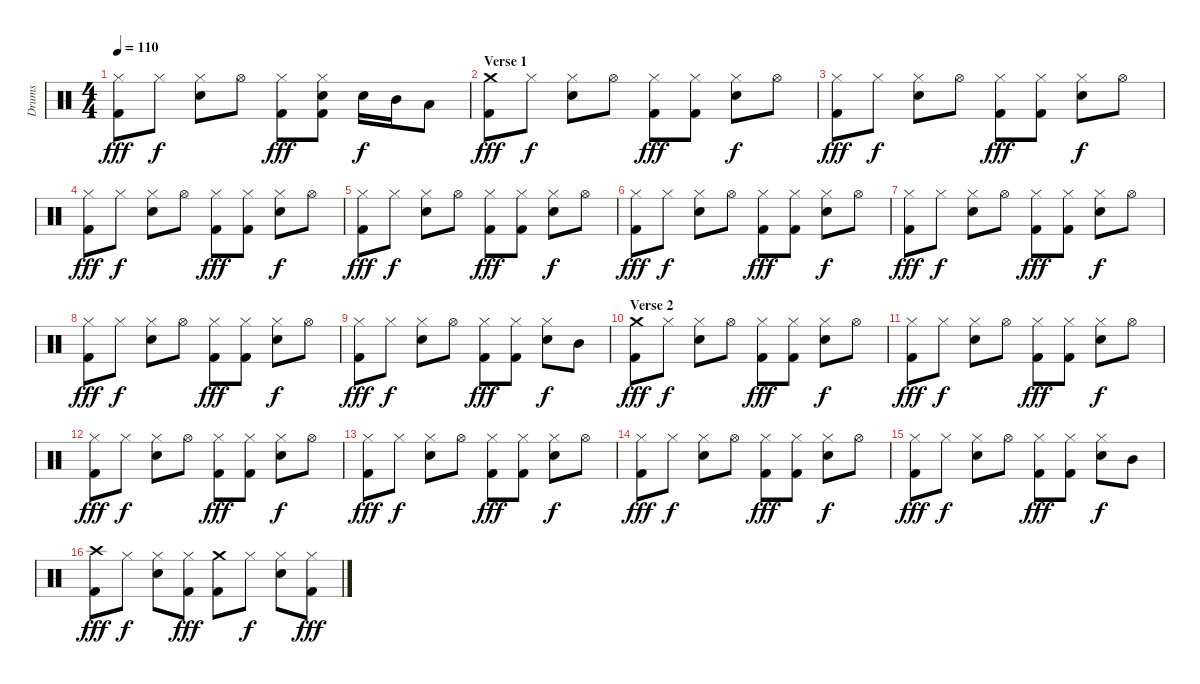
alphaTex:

\track ("Drums" "Drums") {instrument percussion}
\staff {score}
\articulation defaults
\ts (4 4)
\tempo 110
\clef neutral
\ks c
("Hi-Hat (closed)" "Kick (hit) 2").8{dy fff} "Hi-Hat (closed)".8{dy f} ("Hi-Hat (closed)" "Snare (hit) 2").8 "Hi-Hat (open)".8 ("Hi-Hat (closed)" "Kick (hit) 2").8{dy fff} ("Hi-Hat (closed)" "Snare (hit) 2" "Kick (hit) 2").8 "Snare (hit) 2".16{dy f} "Mid Tom (hit)".16 "Low Tom (hit)".8 |
\section ("" "Verse 1")
("Crash medium (hit)" "Kick (hit) 2").8{dy fff} "Hi-Hat (closed)".8{dy f} ("Hi-Hat (closed)" "Snare (hit) 2").8 "Hi-Hat (open)".8 ("Hi-Hat (closed)" "Kick (hit) 2").8{dy fff} ("Hi-Hat (closed)" "Kick (hit) 2").8 ("Hi-Hat (closed)" "Snare (hit) 2").8{dy f} "Hi-Hat (open)".8 |
("Hi-Hat (closed)" "Kick (hit) 2").8{dy fff} "Hi-Hat (closed)".8{dy f} ("Hi-Hat (closed)" "Snare (hit) 2").8 "Hi-Hat (open)".8 ("Hi-Hat (closed)" "Kick (hit) 2").8{dy fff} ("Hi-Hat (closed)" "Kick (hit) 2").8 ("Hi-Hat (closed)" "Snare (hit) 2").8{dy f} "Hi-Hat (open)".8 |
("Hi-Hat (closed)" "Kick (hit) 2").8{dy fff} "Hi-Hat (closed)".8{dy f} ("Hi-Hat (closed)" "Snare (hit) 2").8 "Hi-Hat (open)".8 ("Hi-Hat (closed)" "Kick (hit) 2").8{dy fff} ("Hi-Hat (closed)" "Kick (hit) 2").8 ("Hi-Hat (closed)" "Snare (hit) 2").8{dy f} "Hi-Hat (open)".8 |
("Hi-Hat (closed)" "Kick (hit) 2").8{dy fff} "Hi-Hat (closed)".8{dy f} ("Hi-Hat (closed)" "Snare (hit) 2").8 "Hi-Hat (open)".8 ("Hi-Hat (closed)" "Kick (hit) 2").8{dy fff} ("Hi-Hat (closed)" "Kick (hit) 2").8 ("Hi-Hat (closed)" "Snare (hit) 2").8{dy f} "Hi-Hat (open)".8 |
("Hi-Hat (closed)" "Kick (hit) 2").8{dy fff} "Hi-Hat (closed)".8{dy f} ("Hi-Hat (closed)" "Snare (hit) 2").8 "Hi-Hat (open)".8 ("Hi-Hat (closed)" "Kick (hit) 2").8{dy fff} ("Hi-Hat (closed)" "Kick (hit) 2").8 ("Hi-Hat (closed)" "Snare (hit) 2").8{dy f} "Hi-Hat (open)".8 |
("Hi-Hat (closed)" "Kick (hit) 2").8{dy fff} "Hi-Hat (closed)".8{dy f} ("Hi-Hat (closed)" "Snare (hit) 2").8 "Hi-Hat (open)".8 ("Hi-Hat (closed)" "Kick (hit) 2").8{dy fff} ("Hi-Hat (closed)" "Kick (hit) 2").8 ("Hi-Hat (closed)" "Snare (hit) 2").8{dy f} "Hi-Hat (open)".8 |
("Hi-Hat (closed)" "Kick (hit) 2").8{dy fff} "Hi-Hat (closed)".8{dy f} ("Hi-Hat (closed)" "Snare (hit) 2").8 "Hi-Hat (open)".8 ("Hi-Hat (closed)" "Kick (hit) 2").8{dy fff} ("Hi-Hat (closed)" "Kick (hit) 2").8 ("Hi-Hat (closed)" "Snare (hit) 2").8{dy f} "Hi-Hat (open)".8 |
("Hi-Hat (closed)" "Kick (hit) 2").8{dy fff} "Hi-Hat (closed)".8{dy f} ("Hi-Hat (closed)" "Snare (hit) 2").8 "Hi-Hat (open)".8 ("Hi-Hat (closed)" "Kick (hit) 2").8{dy fff} ("Hi-Hat (closed)" "Kick (hit) 2").8 ("Hi-Hat (closed)" "Snare (hit) 2").8{dy f} "Mid Tom (hit)".8 |
\section ("" "Verse 2")
("Crash medium (hit)" "Kick (hit) 2").8{dy fff} "Hi-Hat (closed)".8{dy f} ("Hi-Hat (closed)" "Snare (hit) 2").8 "Hi-Hat (open)".8 ("Hi-Hat (closed)" "Kick (hit) 2").8{dy fff} ("Hi-Hat (closed)" "Kick (hit) 2").8 ("Hi-Hat (closed)" "Snare (hit) 2").8{dy f} "Hi-Hat (open)".8 |
("Hi-Hat (closed)" "Kick (hit) 2").8{dy fff} "Hi-Hat (closed)".8{dy f} ("Hi-Hat (closed)" "Snare (hit) 2").8 "Hi-Hat (open)".8 ("Hi-Hat (closed)" "Kick (hit) 2").8{dy fff} ("Hi-Hat (closed)" "Kick (hit) 2").8 ("Hi-Hat (closed)" "Snare (hit) 2").8{dy f} "Hi-Hat (open)".8 |
("Hi-Hat (closed)" "Kick (hit) 2").8{dy fff} "Hi-Hat (closed)".8{dy f} ("Hi-Hat (closed)" "Snare (hit) 2").8 "Hi-Hat (open)".8 ("Hi-Hat (closed)" "Kick (hit) 2").8{dy fff} ("Hi-Hat (closed)" "Kick (hit) 2").8 ("Hi-Hat (closed)" "Snare (hit) 2").8{dy f} "Hi-Hat (open)".8 |
("Hi-Hat (closed)" "Kick (hit) 2").8{dy fff} "Hi-Hat (closed)".8{dy f} ("Hi-Hat (closed)" "Snare (hit) 2").8 "Hi-Hat (open)".8 ("Hi-Hat (closed)" "Kick (hit) 2").8{dy fff} ("Hi-Hat (closed)" "Kick (hit) 2").8 ("Hi-Hat (closed)" "Snare (hit) 2").8{dy f} "Hi-Hat (open)".8 |
("Hi-Hat (closed)" "Kick (hit) 2").8{dy fff} "Hi-Hat (closed)".8{dy f} ("Hi-Hat (closed)" "Snare (hit) 2").8 "Hi-Hat (open)".8 ("Hi-Hat (closed)" "Kick (hit) 2").8{dy fff} ("Hi-Hat (closed)" "Kick (hit) 2").8 ("Hi-Hat (closed)" "Snare (hit) 2").8{dy f} "Hi-Hat (open)".8 |
("Hi-Hat (closed)" "Kick (hit) 2").8{dy fff} "Hi-Hat (closed)".8{dy f} ("Hi-Hat (closed)" "Snare (hit) 2").8 "Hi-Hat (open)".8 ("Hi-Hat (closed)" "Kick (hit) 2").8{dy fff} ("Hi-Hat (closed)" "Kick (hit) 2").8 ("Hi-Hat (closed)" "Snare (hit) 2").8{dy f} "Mid Tom (hit)".8 |
("Crash high (hit)" "Kick (hit) 2").8{dy fff} "Hi-Hat (closed)".8{dy f} ("Hi-Hat (closed)" "Snare (hit) 2").8 ("Hi-Hat (closed)" "Kick (hit) 2").8{dy fff} ("Crash medium (hit)" "Kick (hit) 2").8 "Hi-Hat (closed)".8{dy f} ("Hi-Hat (closed)" "Snare (hit) 2").8 ("Hi-Hat (closed)" "Kick (hit) 2").8{dy fff}
